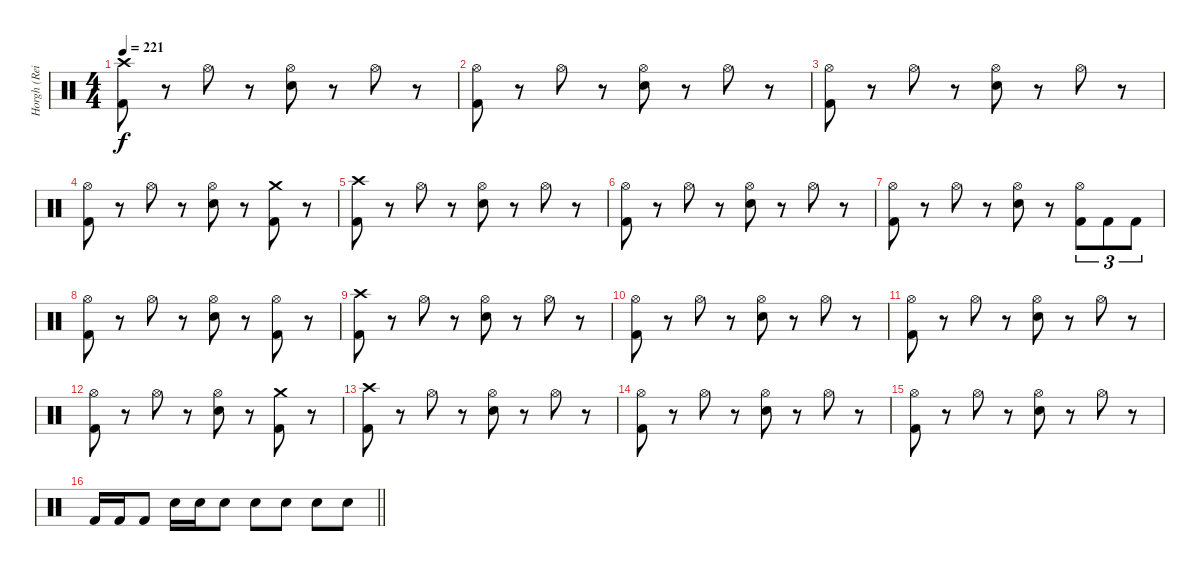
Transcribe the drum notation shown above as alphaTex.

\track ("Horgh (Reidar Horghagen)" "Horgh (Rei") {instrument percussion}
\staff {score}
\articulation defaults
\ts (4 4)
\tempo 221
\clef neutral
\ks c
("Crash high (hit)" "Kick (hit) 2").8{dy f} r.8 "Hi-Hat (open)".8 r.8 ("Hi-Hat (open)" "Snare (hit) 2").8 r.8 "Hi-Hat (open)".8 r.8 |
("Hi-Hat (open)" "Kick (hit) 2").8 r.8 "Hi-Hat (open)".8 r.8 ("Hi-Hat (open)" "Snare (hit) 2").8 r.8 "Hi-Hat (open)".8 r.8 |
("Hi-Hat (open)" "Kick (hit) 2").8 r.8 "Hi-Hat (open)".8 r.8 ("Hi-Hat (open)" "Snare (hit) 2").8 r.8 "Hi-Hat (open)".8 r.8 |
("Hi-Hat (open)" "Kick (hit) 2").8 r.8 "Hi-Hat (open)".8 r.8 ("Hi-Hat (open)" "Snare (hit) 2").8 r.8 ("Crash medium (hit)" "Kick (hit) 2").8 r.8 |
("Crash high (hit)" "Kick (hit) 2").8 r.8 "Hi-Hat (open)".8 r.8 ("Hi-Hat (open)" "Snare (hit) 2").8 r.8 "Hi-Hat (open)".8 r.8 |
("Hi-Hat (open)" "Kick (hit) 2").8 r.8 "Hi-Hat (open)".8 r.8 ("Hi-Hat (open)" "Snare (hit) 2").8 r.8 "Hi-Hat (open)".8 r.8 |
("Hi-Hat (open)" "Kick (hit) 2").8 r.8 "Hi-Hat (open)".8 r.8 ("Hi-Hat (open)" "Snare (hit) 2").8 r.8 ("Hi-Hat (open)" "Kick (hit) 2").8{tu (3 2)} "Kick (hit) 2".8{tu (3 2)} "Kick (hit) 2".8{tu (3 2)} |
("Hi-Hat (open)" "Kick (hit) 2").8 r.8 "Hi-Hat (open)".8 r.8 ("Hi-Hat (open)" "Snare (hit) 2").8 r.8 ("Hi-Hat (open)" "Kick (hit) 2").8 r.8 |
("Crash high (hit)" "Kick (hit) 2").8 r.8 "Hi-Hat (open)".8 r.8 ("Hi-Hat (open)" "Snare (hit) 2").8 r.8 "Hi-Hat (open)".8 r.8 |
("Hi-Hat (open)" "Kick (hit) 2").8 r.8 "Hi-Hat (open)".8 r.8 ("Hi-Hat (open)" "Snare (hit) 2").8 r.8 "Hi-Hat (open)".8 r.8 |
("Hi-Hat (open)" "Kick (hit) 2").8 r.8 "Hi-Hat (open)".8 r.8 ("Hi-Hat (open)" "Snare (hit) 2").8 r.8 "Hi-Hat (open)".8 r.8 |
("Hi-Hat (open)" "Kick (hit) 2").8 r.8 "Hi-Hat (open)".8 r.8 ("Hi-Hat (open)" "Snare (hit) 2").8 r.8 ("Crash medium (hit)" "Kick (hit) 2").8 r.8 |
("Crash high (hit)" "Kick (hit) 2").8 r.8 "Hi-Hat (open)".8 r.8 ("Hi-Hat (open)" "Snare (hit) 2").8 r.8 "Hi-Hat (open)".8 r.8 |
("Hi-Hat (open)" "Kick (hit) 2").8 r.8 "Hi-Hat (open)".8 r.8 ("Hi-Hat (open)" "Snare (hit) 2").8 r.8 "Hi-Hat (open)".8 r.8 |
("Hi-Hat (open)" "Kick (hit) 2").8 r.8 "Hi-Hat (open)".8 r.8 ("Hi-Hat (open)" "Snare (hit) 2").8 r.8 "Hi-Hat (open)".8 r.8 |
\barLineRight lightlight "Kick (hit) 2".16 "Kick (hit) 2".16 "Kick (hit) 2".8 "Snare (hit) 2".16 "Snare (hit) 2".16 "Snare (hit) 2".8 "Snare (hit) 2".8 "Snare (hit) 2".8 "Snare (hit) 2".8 "Snare (hit) 2".8
